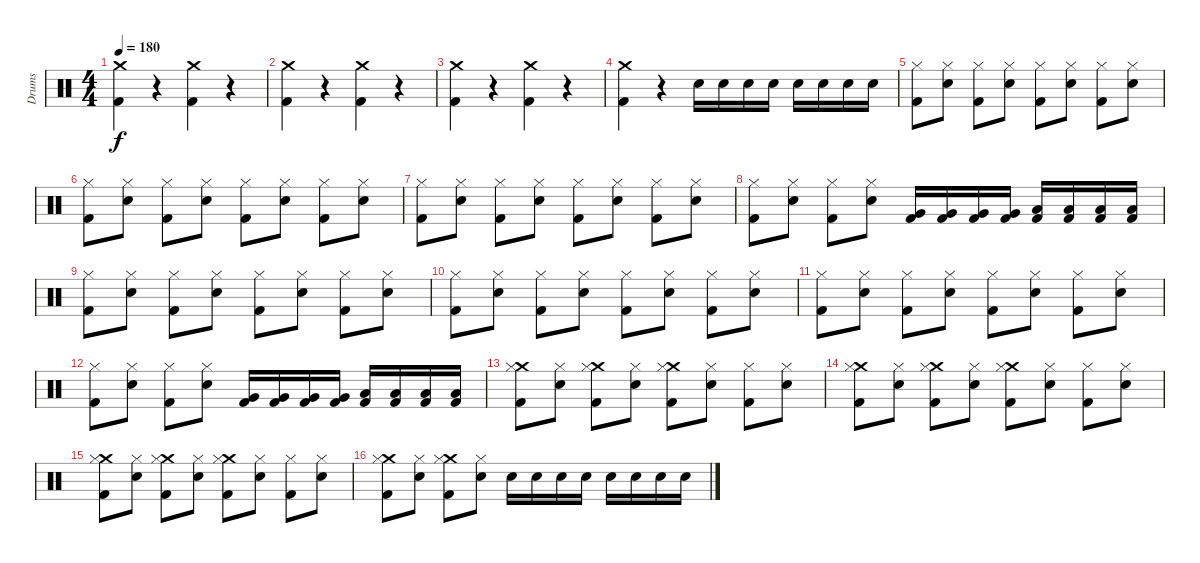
\track ("Drums" "Drums") {instrument percussion}
\staff {score}
\articulation defaults
\ts (4 4)
\tempo 180
\clef neutral
\ks c
("Crash medium (hit)" "Kick (hit) 2").4{dy f} r.4 ("Crash medium (hit)" "Kick (hit) 2").4 r.4 |
("Crash medium (hit)" "Kick (hit) 2").4 r.4 ("Crash medium (hit)" "Kick (hit) 2").4 r.4 |
("Crash medium (hit)" "Kick (hit) 2").4 r.4 ("Crash medium (hit)" "Kick (hit) 2").4 r.4 |
("Crash medium (hit)" "Kick (hit) 2").4 r.4 "Electric Snare (hit)".16 "Electric Snare (hit)".16 "Electric Snare (hit)".16 "Electric Snare (hit)".16 "Electric Snare (hit)".16 "Electric Snare (hit)".16 "Electric Snare (hit)".16 "Electric Snare (hit)".16 |
("Hi-Hat (closed)" "Kick (hit) 2").8 ("Hi-Hat (closed)" "Electric Snare (hit)").8 ("Hi-Hat (closed)" "Kick (hit) 2").8 ("Hi-Hat (closed)" "Electric Snare (hit)").8 ("Hi-Hat (closed)" "Kick (hit) 2").8 ("Hi-Hat (closed)" "Electric Snare (hit)").8 ("Hi-Hat (closed)" "Kick (hit) 2").8 ("Hi-Hat (closed)" "Electric Snare (hit)").8 |
("Hi-Hat (closed)" "Kick (hit) 2").8 ("Hi-Hat (closed)" "Electric Snare (hit)").8 ("Hi-Hat (closed)" "Kick (hit) 2").8 ("Hi-Hat (closed)" "Electric Snare (hit)").8 ("Hi-Hat (closed)" "Kick (hit) 2").8 ("Hi-Hat (closed)" "Electric Snare (hit)").8 ("Hi-Hat (closed)" "Kick (hit) 2").8 ("Hi-Hat (closed)" "Electric Snare (hit)").8 |
("Hi-Hat (closed)" "Kick (hit) 2").8 ("Hi-Hat (closed)" "Electric Snare (hit)").8 ("Hi-Hat (closed)" "Kick (hit) 2").8 ("Hi-Hat (closed)" "Electric Snare (hit)").8 ("Hi-Hat (closed)" "Kick (hit) 2").8 ("Hi-Hat (closed)" "Electric Snare (hit)").8 ("Hi-Hat (closed)" "Kick (hit) 2").8 ("Hi-Hat (closed)" "Electric Snare (hit)").8 |
("Hi-Hat (closed)" "Kick (hit) 2").8 ("Hi-Hat (closed)" "Electric Snare (hit)").8 ("Hi-Hat (closed)" "Kick (hit) 2").8 ("Hi-Hat (closed)" "Electric Snare (hit)").8 ("Very Low Tom (hit)" "Kick (hit) 2").16 ("Very Low Tom (hit)" "Kick (hit) 2").16 ("Very Low Tom (hit)" "Kick (hit) 2").16 ("Very Low Tom (hit)" "Kick (hit) 2").16 ("Low Floor Tom (hit)" "Kick (hit) 2").16 ("Low Floor Tom (hit)" "Kick (hit) 2").16 ("Low Floor Tom (hit)" "Kick (hit) 2").16 ("Low Floor Tom (hit)" "Kick (hit) 2").16 |
("Hi-Hat (closed)" "Kick (hit) 2").8 ("Hi-Hat (closed)" "Electric Snare (hit)").8 ("Hi-Hat (closed)" "Kick (hit) 2").8 ("Hi-Hat (closed)" "Electric Snare (hit)").8 ("Hi-Hat (closed)" "Kick (hit) 2").8 ("Hi-Hat (closed)" "Electric Snare (hit)").8 ("Hi-Hat (closed)" "Kick (hit) 2").8 ("Hi-Hat (closed)" "Electric Snare (hit)").8 |
("Hi-Hat (closed)" "Kick (hit) 2").8 ("Hi-Hat (closed)" "Electric Snare (hit)").8 ("Hi-Hat (closed)" "Kick (hit) 2").8 ("Hi-Hat (closed)" "Electric Snare (hit)").8 ("Hi-Hat (closed)" "Kick (hit) 2").8 ("Hi-Hat (closed)" "Electric Snare (hit)").8 ("Hi-Hat (closed)" "Kick (hit) 2").8 ("Hi-Hat (closed)" "Electric Snare (hit)").8 |
("Hi-Hat (closed)" "Kick (hit) 2").8 ("Hi-Hat (closed)" "Electric Snare (hit)").8 ("Hi-Hat (closed)" "Kick (hit) 2").8 ("Hi-Hat (closed)" "Electric Snare (hit)").8 ("Hi-Hat (closed)" "Kick (hit) 2").8 ("Hi-Hat (closed)" "Electric Snare (hit)").8 ("Hi-Hat (closed)" "Kick (hit) 2").8 ("Hi-Hat (closed)" "Electric Snare (hit)").8 |
("Hi-Hat (closed)" "Kick (hit) 2").8 ("Hi-Hat (closed)" "Electric Snare (hit)").8 ("Hi-Hat (closed)" "Kick (hit) 2").8 ("Hi-Hat (closed)" "Electric Snare (hit)").8 ("Very Low Tom (hit)" "Kick (hit) 2").16 ("Very Low Tom (hit)" "Kick (hit) 2").16 ("Very Low Tom (hit)" "Kick (hit) 2").16 ("Very Low Tom (hit)" "Kick (hit) 2").16 ("Low Floor Tom (hit)" "Kick (hit) 2").16 ("Low Floor Tom (hit)" "Kick (hit) 2").16 ("Low Floor Tom (hit)" "Kick (hit) 2").16 ("Low Floor Tom (hit)" "Kick (hit) 2").16 |
("Crash medium (hit)" "Hi-Hat (closed)" "Kick (hit) 2").8 ("Hi-Hat (closed)" "Electric Snare (hit)").8 ("Crash medium (hit)" "Hi-Hat (closed)" "Kick (hit) 2").8 ("Hi-Hat (closed)" "Electric Snare (hit)").8 ("Crash medium (hit)" "Hi-Hat (closed)" "Kick (hit) 2").8 ("Hi-Hat (closed)" "Electric Snare (hit)").8 ("Hi-Hat (closed)" "Kick (hit) 2").8 ("Hi-Hat (closed)" "Electric Snare (hit)").8 |
("Crash medium (hit)" "Hi-Hat (closed)" "Kick (hit) 2").8 ("Hi-Hat (closed)" "Electric Snare (hit)").8 ("Crash medium (hit)" "Hi-Hat (closed)" "Kick (hit) 2").8 ("Hi-Hat (closed)" "Electric Snare (hit)").8 ("Crash medium (hit)" "Hi-Hat (closed)" "Kick (hit) 2").8 ("Hi-Hat (closed)" "Electric Snare (hit)").8 ("Hi-Hat (closed)" "Kick (hit) 2").8 ("Hi-Hat (closed)" "Electric Snare (hit)").8 |
("Crash medium (hit)" "Hi-Hat (closed)" "Kick (hit) 2").8 ("Hi-Hat (closed)" "Electric Snare (hit)").8 ("Crash medium (hit)" "Hi-Hat (closed)" "Kick (hit) 2").8 ("Hi-Hat (closed)" "Electric Snare (hit)").8 ("Crash medium (hit)" "Hi-Hat (closed)" "Kick (hit) 2").8 ("Hi-Hat (closed)" "Electric Snare (hit)").8 ("Hi-Hat (closed)" "Kick (hit) 2").8 ("Hi-Hat (closed)" "Electric Snare (hit)").8 |
("Crash medium (hit)" "Hi-Hat (closed)" "Kick (hit) 2").8 ("Hi-Hat (closed)" "Electric Snare (hit)").8 ("Crash medium (hit)" "Hi-Hat (closed)" "Kick (hit) 2").8 ("Hi-Hat (closed)" "Electric Snare (hit)").8 "Electric Snare (hit)".16 "Electric Snare (hit)".16 "Electric Snare (hit)".16 "Electric Snare (hit)".16 "Electric Snare (hit)".16 "Electric Snare (hit)".16 "Electric Snare (hit)".16 "Electric Snare (hit)".16
